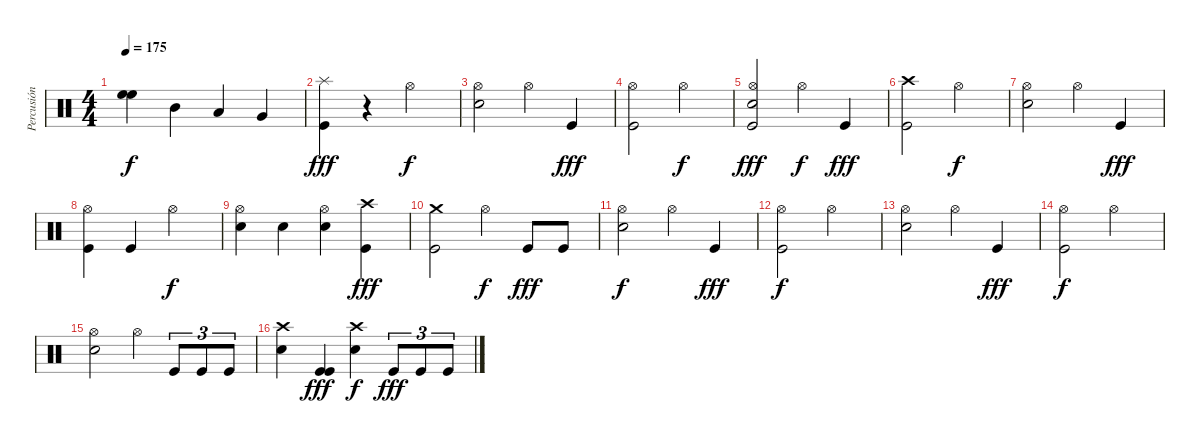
\track ("Percusión" "Percusión") {instrument percussion}
\staff {score}
\articulation defaults
\ts (4 4)
\tempo 175
\clef neutral
\ks c
("High Floor Tom (hit)" "High Floor Tom (hit)").4{bd 480 dy f} "Mid Tom (hit)".4 "Low Tom (hit)".4 "Very Low Tom (hit)".4 |
("Splash (hit)" "Kick (hit)").4{dy fff} r.4 "Hi-Hat (open)".2{dy f} |
("Hi-Hat (open)" "Electric Snare (hit)").2 "Hi-Hat (open)".4 "Kick (hit)".4{dy fff} |
("Hi-Hat (open)" "Kick (hit)").2 "Hi-Hat (open)".2{dy f} |
("Hi-Hat (open)" "Electric Snare (hit)" "Kick (hit)").2{dy fff} "Hi-Hat (open)".4{dy f} "Kick (hit)".4{dy fff} |
("Crash high (hit)" "Kick (hit)").2 "Hi-Hat (open)".2{dy f} |
("Hi-Hat (open)" "Electric Snare (hit)").2 "Hi-Hat (open)".4 "Kick (hit)".4{dy fff} |
("Hi-Hat (open)" "Kick (hit)").4 "Kick (hit)".4 "Hi-Hat (open)".2{dy f} |
("Hi-Hat (open)" "Electric Snare (hit)").4 "Electric Snare (hit)".4 ("Hi-Hat (open)" "Electric Snare (hit)").4 ("Crash high (hit)" "Kick (hit)").4{dy fff} |
("Crash medium (hit)" "Kick (hit)").2 "Hi-Hat (open)".4{dy f} "Kick (hit)".8{dy fff} "Kick (hit)".8 |
("Hi-Hat (open)" "Electric Snare (hit)").2{dy f} "Hi-Hat (open)".4 "Kick (hit)".4{dy fff} |
("Hi-Hat (open)" "Kick (hit)").2{dy f} "Hi-Hat (open)".2 |
("Hi-Hat (open)" "Electric Snare (hit)").2 "Hi-Hat (open)".4 "Kick (hit)".4{dy fff} |
("Hi-Hat (open)" "Kick (hit)").2{dy f} "Hi-Hat (open)".2 |
("Hi-Hat (open)" "Electric Snare (hit)").2 "Hi-Hat (open)".4 "Kick (hit)".8{tu (3 2)} "Kick (hit)".8{tu (3 2)} "Kick (hit)".8{tu (3 2)} |
("Crash high (hit)" "Electric Snare (hit)").4 ("Kick (hit)" "Kick (hit)").4{dy fff} ("Crash high (hit)" "Electric Snare (hit)").4{dy f} "Kick (hit)".8{tu (3 2) dy fff} "Kick (hit)".8{tu (3 2)} "Kick (hit)".8{tu (3 2)}
